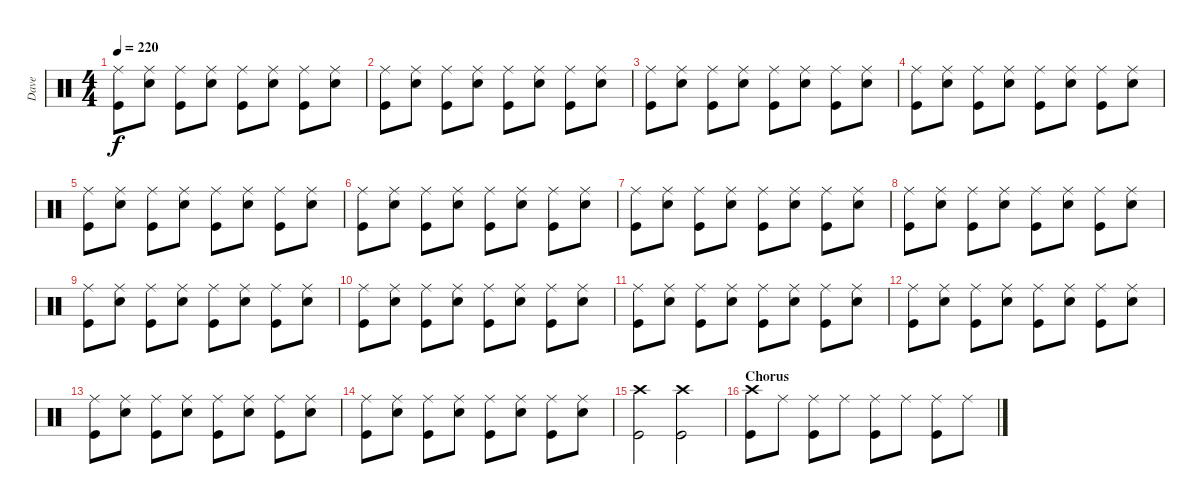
\track ("Dave" "Dave") {instrument percussion}
\staff {score}
\articulation defaults
\ts (4 4)
\tempo 220
\clef neutral
\ks c
("Ride (middle)" "Kick (hit)").8{dy f} ("Ride (middle)" "Snare (hit) 2").8 ("Ride (middle)" "Kick (hit)").8 ("Ride (middle)" "Snare (hit) 2").8 ("Ride (middle)" "Kick (hit)").8 ("Ride (middle)" "Snare (hit) 2").8 ("Ride (middle)" "Kick (hit)").8 ("Ride (middle)" "Snare (hit) 2").8 |
("Ride (middle)" "Kick (hit)").8 ("Ride (middle)" "Snare (hit) 2").8 ("Ride (middle)" "Kick (hit)").8 ("Ride (middle)" "Snare (hit) 2").8 ("Ride (middle)" "Kick (hit)").8 ("Ride (middle)" "Snare (hit) 2").8 ("Ride (middle)" "Kick (hit)").8 ("Ride (middle)" "Snare (hit) 2").8 |
("Ride (middle)" "Kick (hit)").8 ("Ride (middle)" "Snare (hit) 2").8 ("Ride (middle)" "Kick (hit)").8 ("Ride (middle)" "Snare (hit) 2").8 ("Ride (middle)" "Kick (hit)").8 ("Ride (middle)" "Snare (hit) 2").8 ("Ride (middle)" "Kick (hit)").8 ("Ride (middle)" "Snare (hit) 2").8 |
("Ride (middle)" "Kick (hit)").8 ("Ride (middle)" "Snare (hit) 2").8 ("Ride (middle)" "Kick (hit)").8 ("Ride (middle)" "Snare (hit) 2").8 ("Ride (middle)" "Kick (hit)").8 ("Ride (middle)" "Snare (hit) 2").8 ("Ride (middle)" "Kick (hit)").8 ("Ride (middle)" "Snare (hit) 2").8 |
("Ride (middle)" "Kick (hit)").8 ("Ride (middle)" "Snare (hit) 2").8 ("Ride (middle)" "Kick (hit)").8 ("Ride (middle)" "Snare (hit) 2").8 ("Ride (middle)" "Kick (hit)").8 ("Ride (middle)" "Snare (hit) 2").8 ("Ride (middle)" "Kick (hit)").8 ("Ride (middle)" "Snare (hit) 2").8 |
("Ride (middle)" "Kick (hit)").8 ("Ride (middle)" "Snare (hit) 2").8 ("Ride (middle)" "Kick (hit)").8 ("Ride (middle)" "Snare (hit) 2").8 ("Ride (middle)" "Kick (hit)").8 ("Ride (middle)" "Snare (hit) 2").8 ("Ride (middle)" "Kick (hit)").8 ("Ride (middle)" "Snare (hit) 2").8 |
("Ride (middle)" "Kick (hit)").8 ("Ride (middle)" "Snare (hit) 2").8 ("Ride (middle)" "Kick (hit)").8 ("Ride (middle)" "Snare (hit) 2").8 ("Ride (middle)" "Kick (hit)").8 ("Ride (middle)" "Snare (hit) 2").8 ("Ride (middle)" "Kick (hit)").8 ("Ride (middle)" "Snare (hit) 2").8 |
("Ride (middle)" "Kick (hit)").8 ("Ride (middle)" "Snare (hit) 2").8 ("Ride (middle)" "Kick (hit)").8 ("Ride (middle)" "Snare (hit) 2").8 ("Ride (middle)" "Kick (hit)").8 ("Ride (middle)" "Snare (hit) 2").8 ("Ride (middle)" "Kick (hit)").8 ("Ride (middle)" "Snare (hit) 2").8 |
("Ride (middle)" "Kick (hit)").8 ("Ride (middle)" "Snare (hit) 2").8 ("Ride (middle)" "Kick (hit)").8 ("Ride (middle)" "Snare (hit) 2").8 ("Ride (middle)" "Kick (hit)").8 ("Ride (middle)" "Snare (hit) 2").8 ("Ride (middle)" "Kick (hit)").8 ("Ride (middle)" "Snare (hit) 2").8 |
("Ride (middle)" "Kick (hit)").8 ("Ride (middle)" "Snare (hit) 2").8 ("Ride (middle)" "Kick (hit)").8 ("Ride (middle)" "Snare (hit) 2").8 ("Ride (middle)" "Kick (hit)").8 ("Ride (middle)" "Snare (hit) 2").8 ("Ride (middle)" "Kick (hit)").8 ("Ride (middle)" "Snare (hit) 2").8 |
("Ride (middle)" "Kick (hit)").8 ("Ride (middle)" "Snare (hit) 2").8 ("Ride (middle)" "Kick (hit)").8 ("Ride (middle)" "Snare (hit) 2").8 ("Ride (middle)" "Kick (hit)").8 ("Ride (middle)" "Snare (hit) 2").8 ("Ride (middle)" "Kick (hit)").8 ("Ride (middle)" "Snare (hit) 2").8 |
("Ride (middle)" "Kick (hit)").8 ("Ride (middle)" "Snare (hit) 2").8 ("Ride (middle)" "Kick (hit)").8 ("Ride (middle)" "Snare (hit) 2").8 ("Ride (middle)" "Kick (hit)").8 ("Ride (middle)" "Snare (hit) 2").8 ("Ride (middle)" "Kick (hit)").8 ("Ride (middle)" "Snare (hit) 2").8 |
("Ride (middle)" "Kick (hit)").8 ("Ride (middle)" "Snare (hit) 2").8 ("Ride (middle)" "Kick (hit)").8 ("Ride (middle)" "Snare (hit) 2").8 ("Ride (middle)" "Kick (hit)").8 ("Ride (middle)" "Snare (hit) 2").8 ("Ride (middle)" "Kick (hit)").8 ("Ride (middle)" "Snare (hit) 2").8 |
("Ride (middle)" "Kick (hit)").8 ("Ride (middle)" "Snare (hit) 2").8 ("Ride (middle)" "Kick (hit)").8 ("Ride (middle)" "Snare (hit) 2").8 ("Ride (middle)" "Kick (hit)").8 ("Ride (middle)" "Snare (hit) 2").8 ("Ride (middle)" "Kick (hit)").8 ("Ride (middle)" "Snare (hit) 2").8 |
("Crash high (hit)" "Kick (hit)").2 ("Crash high (hit)" "Kick (hit)").2 |
\section ("" "Chorus")
("Crash high (hit)" "Kick (hit)").8 "Ride (middle)".8 ("Ride (middle)" "Kick (hit)").8 "Ride (middle)".8 ("Ride (middle)" "Kick (hit)").8 "Ride (middle)".8 ("Ride (middle)" "Kick (hit)").8 "Ride (middle)".8
